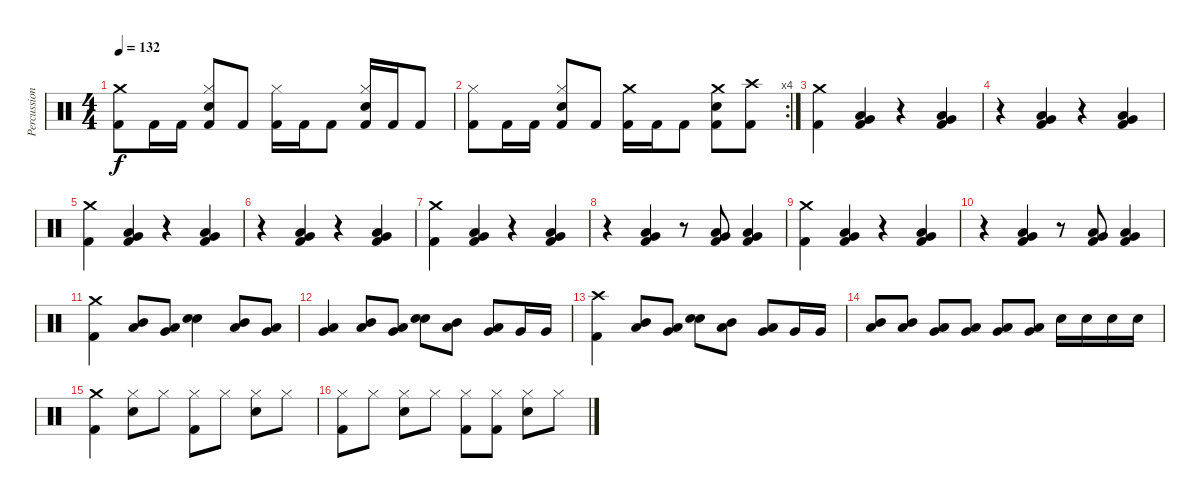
\track ("Percussion" "Percussion") {instrument percussion}
\staff {score}
\articulation defaults
\ts (4 4)
\tempo 132
\clef neutral
\ks c
("Kick (hit) 2" "Crash medium (hit)").8{dy f} "Kick (hit) 2".16 "Kick (hit) 2".16 ("Hi-Hat (closed)" "Kick (hit) 2" "Snare (hit) 2").8 "Kick (hit) 2".8 ("Kick (hit) 2" "Hi-Hat (closed)").16 "Kick (hit) 2".16 "Kick (hit) 2".8 ("Kick (hit) 2" "Hi-Hat (closed)" "Snare (hit) 2").16 "Kick (hit) 2".16 "Kick (hit) 2".8 |
\rc 4
("Kick (hit) 2" "Hi-Hat (closed)").8 "Kick (hit) 2".16 "Kick (hit) 2".16 ("Hi-Hat (closed)" "Kick (hit) 2" "Snare (hit) 2").8 "Kick (hit) 2".8 ("Kick (hit) 2" "Crash medium (hit)").16 "Kick (hit) 2".16 "Kick (hit) 2".8 ("Kick (hit) 2" "Crash medium (hit)" "Snare (hit) 2").8 ("Crash high (hit)" "Kick (hit) 2").8 |
("Kick (hit) 2" "Crash medium (hit)").4 ("Kick (hit) 2" "Low Tom (hit)" "Very Low Tom (hit)").4 r.4 ("Kick (hit) 2" "Low Tom (hit)" "Very Low Tom (hit)").4 |
r.4 ("Kick (hit) 2" "Low Tom (hit)" "Very Low Tom (hit)").4 r.4 ("Kick (hit) 2" "Low Tom (hit)" "Very Low Tom (hit)").4 |
("Kick (hit) 2" "Crash medium (hit)").4 ("Kick (hit) 2" "Low Tom (hit)" "Very Low Tom (hit)").4 r.4 ("Kick (hit) 2" "Low Tom (hit)" "Very Low Tom (hit)").4 |
r.4 ("Kick (hit) 2" "Low Tom (hit)" "Very Low Tom (hit)").4 r.4 ("Kick (hit) 2" "Low Tom (hit)" "Very Low Tom (hit)").4 |
("Kick (hit) 2" "Crash medium (hit)").4 ("Kick (hit) 2" "Low Tom (hit)" "Very Low Tom (hit)").4 r.4 ("Kick (hit) 2" "Low Tom (hit)" "Very Low Tom (hit)").4 |
r.4 ("Kick (hit) 2" "Low Tom (hit)" "Very Low Tom (hit)").4 r.8 ("Kick (hit) 2" "Low Tom (hit)" "Very Low Tom (hit)").8 ("Kick (hit) 2" "Low Tom (hit)" "Very Low Tom (hit)").4 |
("Kick (hit) 2" "Crash medium (hit)").4 ("Kick (hit) 2" "Low Tom (hit)" "Very Low Tom (hit)").4 r.4 ("Kick (hit) 2" "Low Tom (hit)" "Very Low Tom (hit)").4 |
r.4 ("Kick (hit) 2" "Low Tom (hit)" "Very Low Tom (hit)").4 r.8 ("Kick (hit) 2" "Low Tom (hit)" "Very Low Tom (hit)").8 ("Kick (hit) 2" "Low Tom (hit)" "Very Low Tom (hit)").4 |
("Kick (hit) 2" "Crash medium (hit)").4 ("Mid Tom (hit)" "Low Tom (hit)").8 ("Very Low Tom (hit)" "Low Tom (hit)").8 ("Snare (hit) 2" "Snare (hit) 2").4 ("Mid Tom (hit)" "Low Tom (hit)").8 ("Very Low Tom (hit)" "Low Tom (hit)").8 |
("Low Floor Tom (hit)" "Very Low Tom (hit)").4 ("Mid Tom (hit)" "Low Tom (hit)").8 ("Very Low Tom (hit)" "Low Tom (hit)").8 ("Snare (hit) 2" "Snare (hit) 2").8 ("Low Tom (hit)" "Mid Tom (hit)").8 ("Very Low Tom (hit)" "Low Tom (hit)").8 "Very Low Tom (hit)".16 "Very Low Tom (hit)".16 |
("Kick (hit) 2" "Crash high (hit)").4 ("Mid Tom (hit)" "Low Tom (hit)").8 ("Very Low Tom (hit)" "Low Tom (hit)").8 ("Snare (hit) 2" "Snare (hit) 2").8 ("Low Tom (hit)" "Mid Tom (hit)").8 ("Very Low Tom (hit)" "Low Tom (hit)").8 "Very Low Tom (hit)".16 "Very Low Tom (hit)".16 |
("Mid Tom (hit)" "Low Tom (hit)").8 ("Mid Tom (hit)" "Low Tom (hit)").8 ("Very Low Tom (hit)" "Low Tom (hit)").8 ("Very Low Tom (hit)" "Low Tom (hit)").8 ("Very Low Tom (hit)" "Low Floor Tom (hit)").8 ("Very Low Tom (hit)" "Low Floor Tom (hit)").8 "Snare (hit) 2".16 "Snare (hit) 2".16 "Snare (hit) 2".16 "Snare (hit) 2".16 |
("Kick (hit) 2" "Crash medium (hit)").4 ("Snare (hit) 2" "Hi-Hat (closed)").8 "Hi-Hat (closed)".8 ("Kick (hit) 2" "Hi-Hat (closed)").8 "Hi-Hat (closed)".8 ("Snare (hit) 2" "Hi-Hat (closed)").8 "Hi-Hat (closed)".8 |
("Kick (hit) 2" "Hi-Hat (closed)").8 "Hi-Hat (closed)".8 ("Snare (hit) 2" "Hi-Hat (closed)").8 "Hi-Hat (closed)".8 ("Kick (hit) 2" "Hi-Hat (closed)").8 ("Kick (hit) 2" "Hi-Hat (closed)").8 ("Snare (hit) 2" "Hi-Hat (closed)").8 "Hi-Hat (closed)".8
